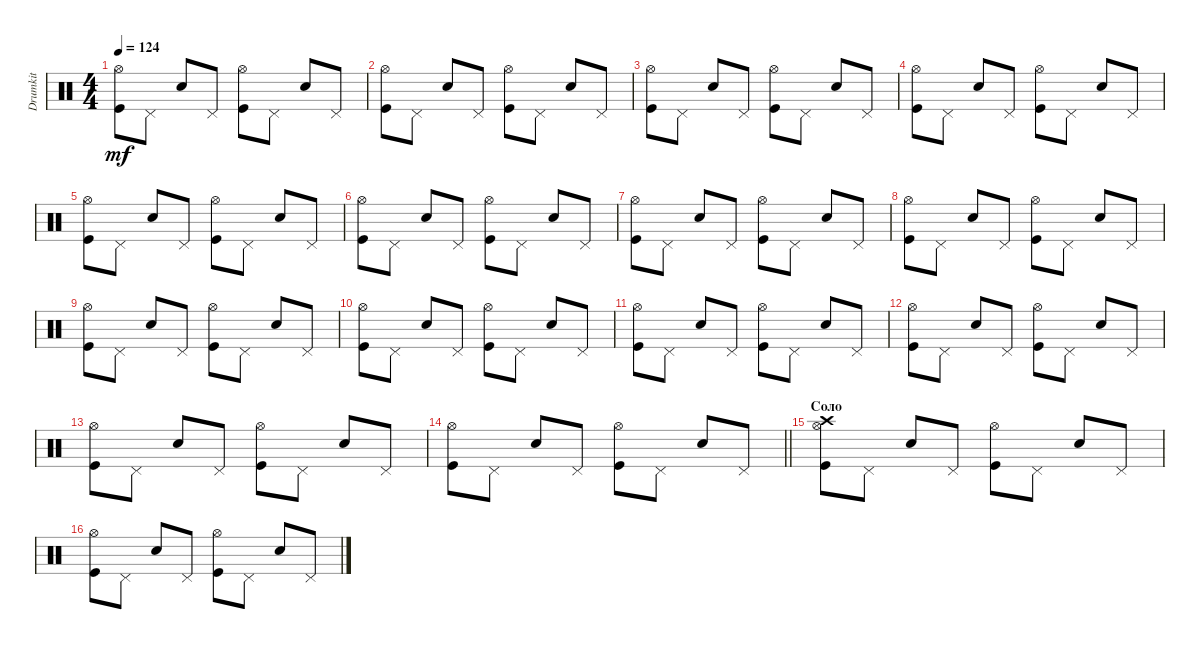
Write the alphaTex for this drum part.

\track ("Drumkit" "Drumkit") {instrument percussion}
\staff {score}
\articulation defaults
\ts (4 4)
\tempo 124
\clef neutral
\ks c
("Kick (hit)" "Hi-Hat (open)").8{dy mf} "Pedal Hi-Hat (hit)".8 "Snare (hit) 2".8 "Pedal Hi-Hat (hit)".8 ("Kick (hit)" "Hi-Hat (open)").8 "Pedal Hi-Hat (hit)".8 "Snare (hit) 2".8 "Pedal Hi-Hat (hit)".8 |
("Kick (hit)" "Hi-Hat (open)").8 "Pedal Hi-Hat (hit)".8 "Snare (hit) 2".8 "Pedal Hi-Hat (hit)".8 ("Kick (hit)" "Hi-Hat (open)").8 "Pedal Hi-Hat (hit)".8 "Snare (hit) 2".8 "Pedal Hi-Hat (hit)".8 |
("Kick (hit)" "Hi-Hat (open)").8 "Pedal Hi-Hat (hit)".8 "Snare (hit) 2".8 "Pedal Hi-Hat (hit)".8 ("Kick (hit)" "Hi-Hat (open)").8 "Pedal Hi-Hat (hit)".8 "Snare (hit) 2".8 "Pedal Hi-Hat (hit)".8 |
("Kick (hit)" "Hi-Hat (open)").8 "Pedal Hi-Hat (hit)".8 "Snare (hit) 2".8 "Pedal Hi-Hat (hit)".8 ("Kick (hit)" "Hi-Hat (open)").8 "Pedal Hi-Hat (hit)".8 "Snare (hit) 2".8 "Pedal Hi-Hat (hit)".8 |
("Kick (hit)" "Hi-Hat (open)").8 "Pedal Hi-Hat (hit)".8 "Snare (hit) 2".8 "Pedal Hi-Hat (hit)".8 ("Kick (hit)" "Hi-Hat (open)").8 "Pedal Hi-Hat (hit)".8 "Snare (hit) 2".8 "Pedal Hi-Hat (hit)".8 |
("Kick (hit)" "Hi-Hat (open)").8 "Pedal Hi-Hat (hit)".8 "Snare (hit) 2".8 "Pedal Hi-Hat (hit)".8 ("Kick (hit)" "Hi-Hat (open)").8 "Pedal Hi-Hat (hit)".8 "Snare (hit) 2".8 "Pedal Hi-Hat (hit)".8 |
("Kick (hit)" "Hi-Hat (open)").8 "Pedal Hi-Hat (hit)".8 "Snare (hit) 2".8 "Pedal Hi-Hat (hit)".8 ("Kick (hit)" "Hi-Hat (open)").8 "Pedal Hi-Hat (hit)".8 "Snare (hit) 2".8 "Pedal Hi-Hat (hit)".8 |
("Kick (hit)" "Hi-Hat (open)").8 "Pedal Hi-Hat (hit)".8 "Snare (hit) 2".8 "Pedal Hi-Hat (hit)".8 ("Kick (hit)" "Hi-Hat (open)").8 "Pedal Hi-Hat (hit)".8 "Snare (hit) 2".8 "Pedal Hi-Hat (hit)".8 |
("Kick (hit)" "Hi-Hat (open)").8 "Pedal Hi-Hat (hit)".8 "Snare (hit) 2".8 "Pedal Hi-Hat (hit)".8 ("Kick (hit)" "Hi-Hat (open)").8 "Pedal Hi-Hat (hit)".8 "Snare (hit) 2".8 "Pedal Hi-Hat (hit)".8 |
("Kick (hit)" "Hi-Hat (open)").8 "Pedal Hi-Hat (hit)".8 "Snare (hit) 2".8 "Pedal Hi-Hat (hit)".8 ("Kick (hit)" "Hi-Hat (open)").8 "Pedal Hi-Hat (hit)".8 "Snare (hit) 2".8 "Pedal Hi-Hat (hit)".8 |
("Kick (hit)" "Hi-Hat (open)").8 "Pedal Hi-Hat (hit)".8 "Snare (hit) 2".8 "Pedal Hi-Hat (hit)".8 ("Kick (hit)" "Hi-Hat (open)").8 "Pedal Hi-Hat (hit)".8 "Snare (hit) 2".8 "Pedal Hi-Hat (hit)".8 |
("Kick (hit)" "Hi-Hat (open)").8 "Pedal Hi-Hat (hit)".8 "Snare (hit) 2".8 "Pedal Hi-Hat (hit)".8 ("Kick (hit)" "Hi-Hat (open)").8 "Pedal Hi-Hat (hit)".8 "Snare (hit) 2".8 "Pedal Hi-Hat (hit)".8 |
("Kick (hit)" "Hi-Hat (open)").8 "Pedal Hi-Hat (hit)".8 "Snare (hit) 2".8 "Pedal Hi-Hat (hit)".8 ("Kick (hit)" "Hi-Hat (open)").8 "Pedal Hi-Hat (hit)".8 "Snare (hit) 2".8 "Pedal Hi-Hat (hit)".8 |
\barLineRight lightlight
("Kick (hit)" "Hi-Hat (open)").8 "Pedal Hi-Hat (hit)".8 "Snare (hit) 2".8 "Pedal Hi-Hat (hit)".8 ("Kick (hit)" "Hi-Hat (open)").8 "Pedal Hi-Hat (hit)".8 "Snare (hit) 2".8 "Pedal Hi-Hat (hit)".8 |
\section ("" "Соло")
("Kick (hit)" "Hi-Hat (open)" "Crash high (hit)").8 "Pedal Hi-Hat (hit)".8 "Snare (hit) 2".8 "Pedal Hi-Hat (hit)".8 ("Kick (hit)" "Hi-Hat (open)").8 "Pedal Hi-Hat (hit)".8 "Snare (hit) 2".8 "Pedal Hi-Hat (hit)".8 |
("Kick (hit)" "Hi-Hat (open)").8 "Pedal Hi-Hat (hit)".8 "Snare (hit) 2".8 "Pedal Hi-Hat (hit)".8 ("Kick (hit)" "Hi-Hat (open)").8 "Pedal Hi-Hat (hit)".8 "Snare (hit) 2".8 "Pedal Hi-Hat (hit)".8
